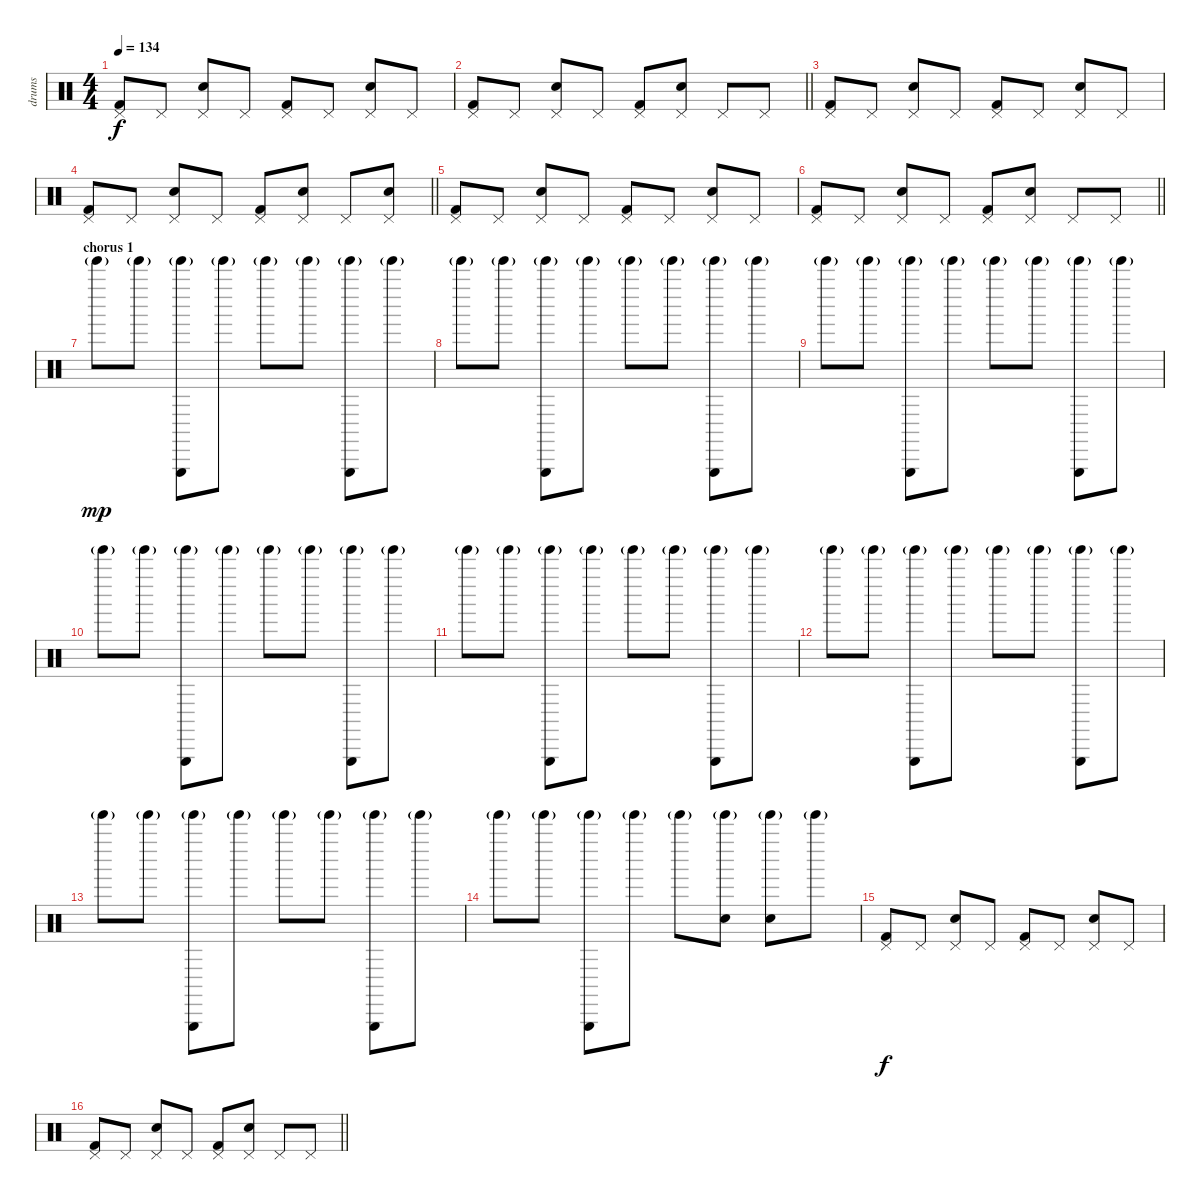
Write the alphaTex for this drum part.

\track ("drums" "drums") {instrument percussion}
\staff {score}
\articulation defaults
\ts (4 4)
\tempo 134
\clef neutral
\ks c
("Kick (hit) 2" "Pedal Hi-Hat (hit)").8{dy f} "Pedal Hi-Hat (hit)".8 ("Snare (hit) 2" "Pedal Hi-Hat (hit)").8 "Pedal Hi-Hat (hit)".8 ("Kick (hit) 2" "Pedal Hi-Hat (hit)").8 "Pedal Hi-Hat (hit)".8 ("Snare (hit) 2" "Pedal Hi-Hat (hit)").8 "Pedal Hi-Hat (hit)".8 |
\barLineRight lightlight
("Kick (hit) 2" "Pedal Hi-Hat (hit)").8 "Pedal Hi-Hat (hit)".8 ("Snare (hit) 2" "Pedal Hi-Hat (hit)").8 "Pedal Hi-Hat (hit)".8 ("Kick (hit) 2" "Pedal Hi-Hat (hit)").8 ("Snare (hit) 2" "Pedal Hi-Hat (hit)").8 "Pedal Hi-Hat (hit)".8 "Pedal Hi-Hat (hit)".8 |
("Kick (hit) 2" "Pedal Hi-Hat (hit)").8 "Pedal Hi-Hat (hit)".8 ("Snare (hit) 2" "Pedal Hi-Hat (hit)").8 "Pedal Hi-Hat (hit)".8 ("Kick (hit) 2" "Pedal Hi-Hat (hit)").8 "Pedal Hi-Hat (hit)".8 ("Snare (hit) 2" "Pedal Hi-Hat (hit)").8 "Pedal Hi-Hat (hit)".8 |
\barLineRight lightlight
("Kick (hit) 2" "Pedal Hi-Hat (hit)").8 "Pedal Hi-Hat (hit)".8 ("Snare (hit) 2" "Pedal Hi-Hat (hit)").8 "Pedal Hi-Hat (hit)".8 ("Kick (hit) 2" "Pedal Hi-Hat (hit)").8 ("Snare (hit) 2" "Pedal Hi-Hat (hit)").8 "Pedal Hi-Hat (hit)".8 ("Snare (hit) 2" "Pedal Hi-Hat (hit)").8 |
("Kick (hit) 2" "Pedal Hi-Hat (hit)").8 "Pedal Hi-Hat (hit)".8 ("Snare (hit) 2" "Pedal Hi-Hat (hit)").8 "Pedal Hi-Hat (hit)".8 ("Kick (hit) 2" "Pedal Hi-Hat (hit)").8 "Pedal Hi-Hat (hit)".8 ("Snare (hit) 2" "Pedal Hi-Hat (hit)").8 "Pedal Hi-Hat (hit)".8 |
\barLineRight lightlight
("Kick (hit) 2" "Pedal Hi-Hat (hit)").8 "Pedal Hi-Hat (hit)".8 ("Snare (hit) 2" "Pedal Hi-Hat (hit)").8 "Pedal Hi-Hat (hit)".8 ("Kick (hit) 2" "Pedal Hi-Hat (hit)").8 ("Snare (hit) 2" "Pedal Hi-Hat (hit)").8 "Pedal Hi-Hat (hit)".8 "Pedal Hi-Hat (hit)".8 |
\section ("" "chorus 1")
"Tinkle Bell (hit)"{g}.8{dy mp} "Tinkle Bell (hit)"{g}.8 ("Triangle (hit)" "Tinkle Bell (hit)"{g}).8 "Tinkle Bell (hit)"{g}.8 "Tinkle Bell (hit)"{g}.8 "Tinkle Bell (hit)"{g}.8 ("Triangle (hit)" "Tinkle Bell (hit)"{g}).8 "Tinkle Bell (hit)"{g}.8 |
"Tinkle Bell (hit)"{g}.8 "Tinkle Bell (hit)"{g}.8 ("Triangle (hit)" "Tinkle Bell (hit)"{g}).8 "Tinkle Bell (hit)"{g}.8 "Tinkle Bell (hit)"{g}.8 "Tinkle Bell (hit)"{g}.8 ("Triangle (hit)" "Tinkle Bell (hit)"{g}).8 "Tinkle Bell (hit)"{g}.8 |
"Tinkle Bell (hit)"{g}.8 "Tinkle Bell (hit)"{g}.8 ("Triangle (hit)" "Tinkle Bell (hit)"{g}).8 "Tinkle Bell (hit)"{g}.8 "Tinkle Bell (hit)"{g}.8 "Tinkle Bell (hit)"{g}.8 ("Triangle (hit)" "Tinkle Bell (hit)"{g}).8 "Tinkle Bell (hit)"{g}.8 |
"Tinkle Bell (hit)"{g}.8 "Tinkle Bell (hit)"{g}.8 ("Triangle (hit)" "Tinkle Bell (hit)"{g}).8 "Tinkle Bell (hit)"{g}.8 "Tinkle Bell (hit)"{g}.8 "Tinkle Bell (hit)"{g}.8 ("Triangle (hit)" "Tinkle Bell (hit)"{g}).8 "Tinkle Bell (hit)"{g}.8 |
"Tinkle Bell (hit)"{g}.8 "Tinkle Bell (hit)"{g}.8 ("Triangle (hit)" "Tinkle Bell (hit)"{g}).8 "Tinkle Bell (hit)"{g}.8 "Tinkle Bell (hit)"{g}.8 "Tinkle Bell (hit)"{g}.8 ("Triangle (hit)" "Tinkle Bell (hit)"{g}).8 "Tinkle Bell (hit)"{g}.8 |
"Tinkle Bell (hit)"{g}.8 "Tinkle Bell (hit)"{g}.8 ("Triangle (hit)" "Tinkle Bell (hit)"{g}).8 "Tinkle Bell (hit)"{g}.8 "Tinkle Bell (hit)"{g}.8 "Tinkle Bell (hit)"{g}.8 ("Triangle (hit)" "Tinkle Bell (hit)"{g}).8 "Tinkle Bell (hit)"{g}.8 |
"Tinkle Bell (hit)"{g}.8 "Tinkle Bell (hit)"{g}.8 ("Triangle (hit)" "Tinkle Bell (hit)"{g}).8 "Tinkle Bell (hit)"{g}.8 "Tinkle Bell (hit)"{g}.8 "Tinkle Bell (hit)"{g}.8 ("Triangle (hit)" "Tinkle Bell (hit)"{g}).8 "Tinkle Bell (hit)"{g}.8 |
"Tinkle Bell (hit)"{g}.8 "Tinkle Bell (hit)"{g}.8 ("Triangle (hit)" "Tinkle Bell (hit)"{g}).8 "Tinkle Bell (hit)"{g}.8 "Tinkle Bell (hit)"{g}.8 ("Snare (hit) 2" "Tinkle Bell (hit)"{g}).8 ("Snare (hit) 2" "Tinkle Bell (hit)"{g}).8 "Tinkle Bell (hit)"{g}.8 |
("Kick (hit) 2" "Pedal Hi-Hat (hit)").8{dy f} "Pedal Hi-Hat (hit)".8 ("Snare (hit) 2" "Pedal Hi-Hat (hit)").8 "Pedal Hi-Hat (hit)".8 ("Kick (hit) 2" "Pedal Hi-Hat (hit)").8 "Pedal Hi-Hat (hit)".8 ("Snare (hit) 2" "Pedal Hi-Hat (hit)").8 "Pedal Hi-Hat (hit)".8 |
\barLineRight lightlight
("Kick (hit) 2" "Pedal Hi-Hat (hit)").8 "Pedal Hi-Hat (hit)".8 ("Snare (hit) 2" "Pedal Hi-Hat (hit)").8 "Pedal Hi-Hat (hit)".8 ("Kick (hit) 2" "Pedal Hi-Hat (hit)").8 ("Snare (hit) 2" "Pedal Hi-Hat (hit)").8 "Pedal Hi-Hat (hit)".8 "Pedal Hi-Hat (hit)".8
